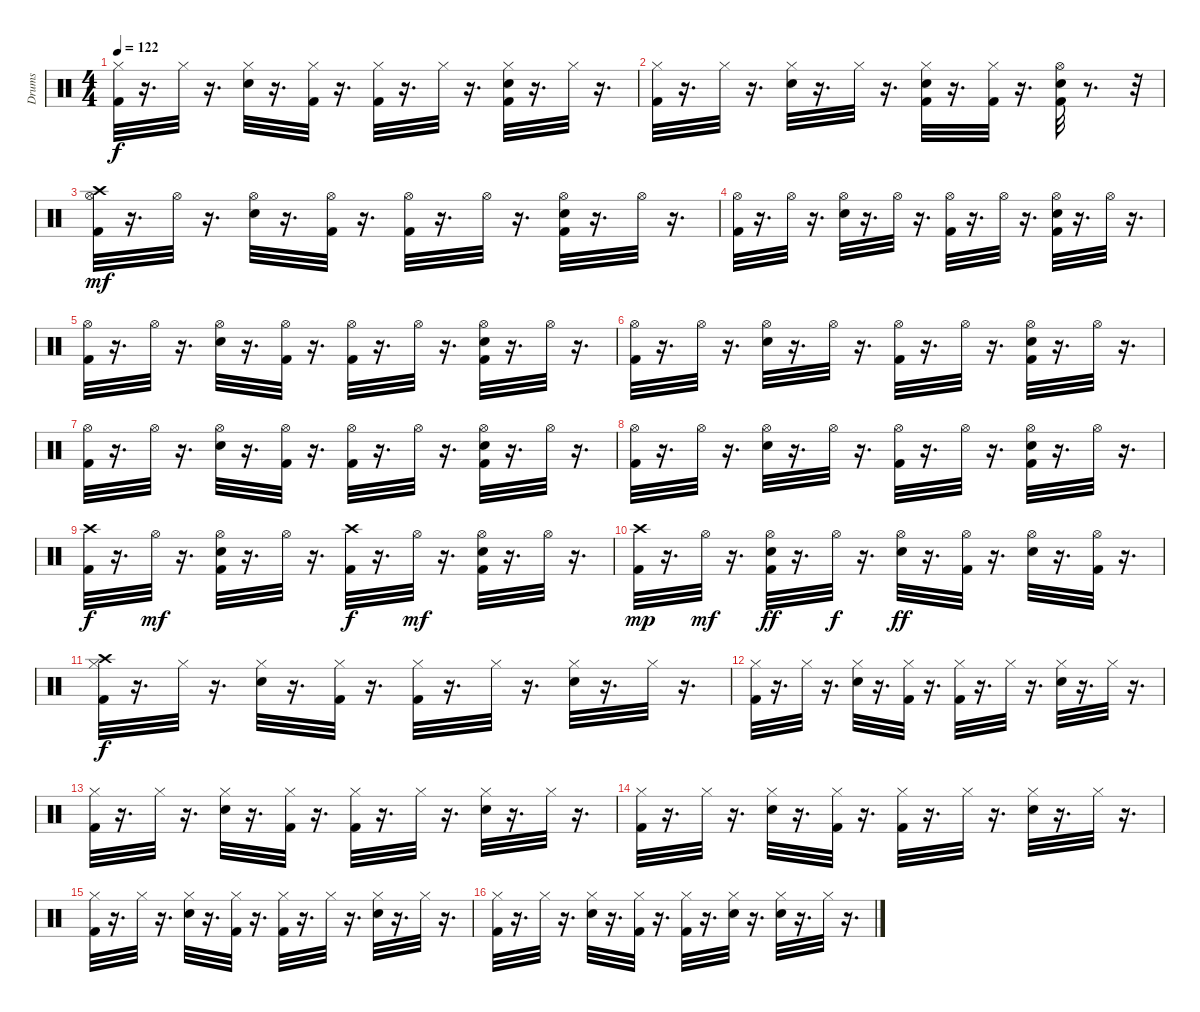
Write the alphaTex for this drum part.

\track ("Drums" "Drums") {instrument percussion}
\staff {score}
\articulation defaults
\ts (4 4)
\tempo 122
\clef neutral
\ks c
("Kick (hit) 2" "Hi-Hat (closed)").32{dy f} r.16{d} "Hi-Hat (closed)".32 r.16{d} ("Snare (hit) 2" "Hi-Hat (closed)").32 r.16{d} ("Kick (hit) 2" "Hi-Hat (closed)").32 r.16{d} ("Kick (hit) 2" "Hi-Hat (closed)").32 r.16{d} "Hi-Hat (closed)".32 r.16{d} ("Kick (hit) 2" "Snare (hit) 2" "Hi-Hat (closed)").32 r.16{d} "Hi-Hat (closed)".32 r.16{d} |
("Kick (hit) 2" "Hi-Hat (closed)").32 r.16{d} "Hi-Hat (closed)".32 r.16{d} ("Snare (hit) 2" "Hi-Hat (closed)").32 r.16{d} "Hi-Hat (closed)".32 r.16{d} ("Kick (hit) 2" "Snare (hit) 2" "Hi-Hat (closed)").32 r.16{d} ("Kick (hit) 2" "Hi-Hat (closed)").32 r.16{d} ("Kick (hit) 2" "Snare (hit) 2" "Hi-Hat (open)").32 r.8{d} r.32 |
("Kick (hit) 2" "Hi-Hat (open)" "Crash high (hit)").32{dy mf} r.16{d} "Hi-Hat (open)".32 r.16{d} ("Snare (hit) 2" "Hi-Hat (open)").32 r.16{d} ("Kick (hit) 2" "Hi-Hat (open)").32 r.16{d} ("Kick (hit) 2" "Hi-Hat (open)").32 r.16{d} "Hi-Hat (open)".32 r.16{d} ("Kick (hit) 2" "Snare (hit) 2" "Hi-Hat (open)").32 r.16{d} "Hi-Hat (open)".32 r.16{d} |
("Kick (hit) 2" "Hi-Hat (open)").32 r.16{d} "Hi-Hat (open)".32 r.16{d} ("Snare (hit) 2" "Hi-Hat (open)").32 r.16{d} "Hi-Hat (open)".32 r.16{d} ("Kick (hit) 2" "Hi-Hat (open)").32 r.16{d} "Hi-Hat (open)".32 r.16{d} ("Kick (hit) 2" "Snare (hit) 2" "Hi-Hat (open)").32 r.16{d} "Hi-Hat (open)".32 r.16{d} |
("Kick (hit) 2" "Hi-Hat (open)").32 r.16{d} "Hi-Hat (open)".32 r.16{d} ("Snare (hit) 2" "Hi-Hat (open)").32 r.16{d} ("Kick (hit) 2" "Hi-Hat (open)").32 r.16{d} ("Kick (hit) 2" "Hi-Hat (open)").32 r.16{d} "Hi-Hat (open)".32 r.16{d} ("Kick (hit) 2" "Snare (hit) 2" "Hi-Hat (open)").32 r.16{d} "Hi-Hat (open)".32 r.16{d} |
("Kick (hit) 2" "Hi-Hat (open)").32 r.16{d} "Hi-Hat (open)".32 r.16{d} ("Snare (hit) 2" "Hi-Hat (open)").32 r.16{d} "Hi-Hat (open)".32 r.16{d} ("Kick (hit) 2" "Hi-Hat (open)").32 r.16{d} "Hi-Hat (open)".32 r.16{d} ("Kick (hit) 2" "Snare (hit) 2" "Hi-Hat (open)").32 r.16{d} "Hi-Hat (open)".32 r.16{d} |
("Kick (hit) 2" "Hi-Hat (open)").32 r.16{d} "Hi-Hat (open)".32 r.16{d} ("Snare (hit) 2" "Hi-Hat (open)").32 r.16{d} ("Kick (hit) 2" "Hi-Hat (open)").32 r.16{d} ("Kick (hit) 2" "Hi-Hat (open)").32 r.16{d} "Hi-Hat (open)".32 r.16{d} ("Kick (hit) 2" "Snare (hit) 2" "Hi-Hat (open)").32 r.16{d} "Hi-Hat (open)".32 r.16{d} |
("Kick (hit) 2" "Hi-Hat (open)").32 r.16{d} "Hi-Hat (open)".32 r.16{d} ("Snare (hit) 2" "Hi-Hat (open)").32 r.16{d} "Hi-Hat (open)".32 r.16{d} ("Kick (hit) 2" "Hi-Hat (open)").32 r.16{d} "Hi-Hat (open)".32 r.16{d} ("Kick (hit) 2" "Snare (hit) 2" "Hi-Hat (open)").32 r.16{d} "Hi-Hat (open)".32 r.16{d} |
("Kick (hit) 2" "Crash high (hit)").32{dy f} r.16{d} "Hi-Hat (open)".32{dy mf} r.16{d} ("Kick (hit) 2" "Snare (hit) 2" "Hi-Hat (open)").32 r.16{d} "Hi-Hat (open)".32 r.16{d} ("Kick (hit) 2" "Crash high (hit)").32{dy f} r.16{d} "Hi-Hat (open)".32{dy mf} r.16{d} ("Kick (hit) 2" "Snare (hit) 2" "Hi-Hat (open)").32 r.16{d} "Hi-Hat (open)".32 r.16{d} |
("Kick (hit) 2" "Crash high (hit)").32{dy mp} r.16{d} "Hi-Hat (open)".32{dy mf} r.16{d} ("Kick (hit) 2" "Snare (hit) 2" "Hi-Hat (open)").32{dy ff} r.16{d} "Hi-Hat (open)".32{dy f} r.16{d} ("Snare (hit) 2" "Hi-Hat (open)").32{dy ff} r.16{d} ("Kick (hit) 2" "Hi-Hat (open)").32 r.16{d} ("Snare (hit) 2" "Hi-Hat (open)").32 r.16{d} ("Kick (hit) 2" "Hi-Hat (open)").32 r.16{d} |
("Kick (hit) 2" "Hi-Hat (closed)" "Crash high (hit)").32{dy f} r.16{d} "Hi-Hat (closed)".32 r.16{d} ("Snare (hit) 2" "Hi-Hat (closed)").32 r.16{d} ("Kick (hit) 2" "Hi-Hat (closed)").32 r.16{d} ("Kick (hit) 2" "Hi-Hat (closed)").32 r.16{d} "Hi-Hat (closed)".32 r.16{d} ("Snare (hit) 2" "Hi-Hat (closed)").32 r.16{d} "Hi-Hat (closed)".32 r.16{d} |
("Kick (hit) 2" "Hi-Hat (closed)").32 r.16{d} "Hi-Hat (closed)".32 r.16{d} ("Snare (hit) 2" "Hi-Hat (closed)").32 r.16{d} ("Kick (hit) 2" "Hi-Hat (closed)").32 r.16{d} ("Kick (hit) 2" "Hi-Hat (closed)").32 r.16{d} "Hi-Hat (closed)".32 r.16{d} ("Snare (hit) 2" "Hi-Hat (closed)").32 r.16{d} "Hi-Hat (closed)".32 r.16{d} |
("Kick (hit) 2" "Hi-Hat (closed)").32 r.16{d} "Hi-Hat (closed)".32 r.16{d} ("Snare (hit) 2" "Hi-Hat (closed)").32 r.16{d} ("Kick (hit) 2" "Hi-Hat (closed)").32 r.16{d} ("Kick (hit) 2" "Hi-Hat (closed)").32 r.16{d} "Hi-Hat (closed)".32 r.16{d} ("Snare (hit) 2" "Hi-Hat (closed)").32 r.16{d} "Hi-Hat (closed)".32 r.16{d} |
("Kick (hit) 2" "Hi-Hat (closed)").32 r.16{d} "Hi-Hat (closed)".32 r.16{d} ("Snare (hit) 2" "Hi-Hat (closed)").32 r.16{d} ("Kick (hit) 2" "Hi-Hat (closed)").32 r.16{d} ("Kick (hit) 2" "Hi-Hat (closed)").32 r.16{d} "Hi-Hat (closed)".32 r.16{d} ("Snare (hit) 2" "Hi-Hat (closed)").32 r.16{d} "Hi-Hat (closed)".32 r.16{d} |
("Kick (hit) 2" "Hi-Hat (closed)").32 r.16{d} "Hi-Hat (closed)".32 r.16{d} ("Snare (hit) 2" "Hi-Hat (closed)").32 r.16{d} ("Kick (hit) 2" "Hi-Hat (closed)").32 r.16{d} ("Kick (hit) 2" "Hi-Hat (closed)").32 r.16{d} "Hi-Hat (closed)".32 r.16{d} ("Snare (hit) 2" "Hi-Hat (closed)").32 r.16{d} "Hi-Hat (closed)".32 r.16{d} |
("Kick (hit) 2" "Hi-Hat (closed)").32 r.16{d} "Hi-Hat (closed)".32 r.16{d} ("Snare (hit) 2" "Hi-Hat (closed)").32 r.16{d} ("Kick (hit) 2" "Hi-Hat (closed)").32 r.16{d} ("Kick (hit) 2" "Hi-Hat (closed)").32 r.16{d} ("Snare (hit) 2" "Hi-Hat (closed)").32 r.16{d} ("Snare (hit) 2" "Hi-Hat (closed)").32 r.16{d} "Hi-Hat (closed)".32 r.16{d}
